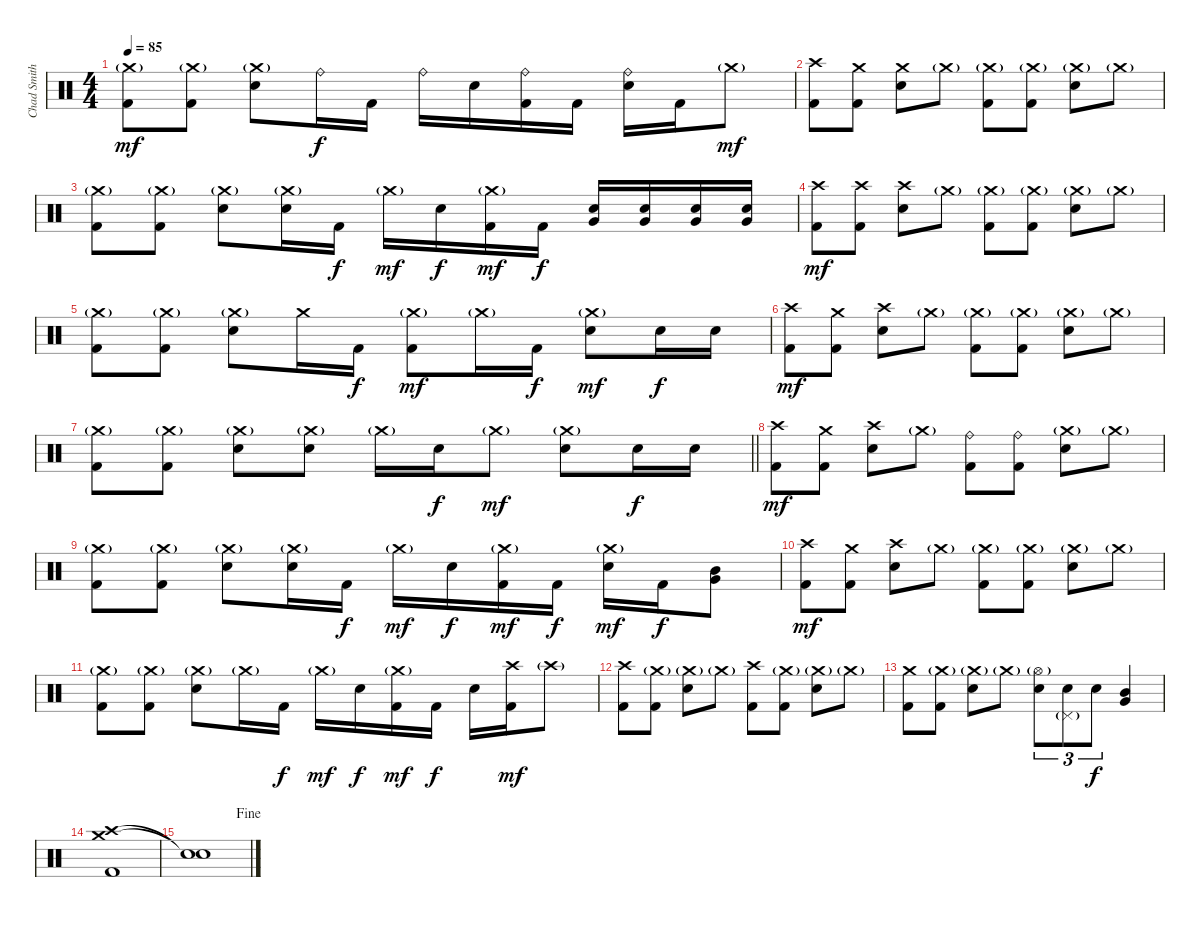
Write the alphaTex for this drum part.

\track ("Chad Smith" "Chad Smith") {instrument percussion}
\staff {score}
\articulation defaults
\ts (4 4)
\tempo 85
\clef neutral
\ks c
("Crash medium (hit)"{g} "Kick (hit) 2").8{dy mf} ("Crash medium (hit)"{g} "Kick (hit) 2").8 ("Crash medium (hit)"{g} "Electric Snare (hit)").8 "Ride (bell)".16{dy f} "Kick (hit) 2".16 "Ride (bell)".16 "Electric Snare (hit)".16 ("Ride (bell)" "Kick (hit) 2").16 "Kick (hit) 2".16 ("Ride (bell)" "Electric Snare (hit)").16 "Kick (hit) 2".16 "Crash medium (hit)"{g}.8{dy mf} |
("Crash high (hit)" "Kick (hit) 2").8 ("Crash medium (hit)" "Kick (hit) 2").8 ("Crash medium (hit)" "Electric Snare (hit)").8 "Crash medium (hit)"{g}.8 ("Crash medium (hit)"{g} "Kick (hit) 2").8 ("Crash medium (hit)"{g} "Kick (hit) 2").8 ("Crash medium (hit)"{g} "Electric Snare (hit)").8 "Crash medium (hit)"{g}.8 |
("Crash medium (hit)"{g} "Kick (hit) 2").8 ("Crash medium (hit)"{g} "Kick (hit) 2").8 ("Crash medium (hit)"{g} "Electric Snare (hit)").8 ("Crash medium (hit)"{g} "Electric Snare (hit)").16 "Kick (hit) 2".16{dy f} "Crash medium (hit)"{g}.16{dy mf} "Electric Snare (hit)".16{dy f} ("Crash medium (hit)"{g} "Kick (hit) 2").16{dy mf} "Kick (hit) 2".16{dy f} ("Electric Snare (hit)" "Very Low Tom (hit)").16 ("Electric Snare (hit)" "Very Low Tom (hit)").16 ("Electric Snare (hit)" "Very Low Tom (hit)").16 ("Electric Snare (hit)" "Very Low Tom (hit)").16 |
("Crash high (hit)" "Kick (hit) 2").8{dy mf} ("Crash high (hit)" "Kick (hit) 2").8 ("Crash high (hit)" "Electric Snare (hit)").8 "Crash medium (hit)"{g}.8 ("Crash medium (hit)"{g} "Kick (hit) 2").8 ("Crash medium (hit)"{g} "Kick (hit) 2").8 ("Crash medium (hit)"{g} "Electric Snare (hit)").8 "Crash medium (hit)"{g}.8 |
("Crash medium (hit)"{g} "Kick (hit) 2").8 ("Crash medium (hit)"{g} "Kick (hit) 2").8 ("Crash medium (hit)"{g} "Electric Snare (hit)").8 "Crash medium (hit)".16 "Kick (hit) 2".16{dy f} ("Crash medium (hit)"{g} "Kick (hit) 2").8{dy mf} "Crash medium (hit)"{g}.16 "Kick (hit) 2".16{dy f} ("Crash medium (hit)"{g} "Electric Snare (hit)").8{dy mf} "Electric Snare (hit)".16{dy f} "Electric Snare (hit)".16 |
("Crash high (hit)" "Kick (hit) 2").8{dy mf} ("Crash medium (hit)" "Kick (hit) 2").8 ("Crash high (hit)" "Electric Snare (hit)").8 "Crash medium (hit)"{g}.8 ("Crash medium (hit)"{g} "Kick (hit) 2").8 ("Crash medium (hit)"{g} "Kick (hit) 2").8 ("Crash medium (hit)"{g} "Electric Snare (hit)").8 "Crash medium (hit)"{g}.8 |
\barLineRight lightlight
("Crash medium (hit)"{g} "Kick (hit) 2").8 ("Crash medium (hit)"{g} "Kick (hit) 2").8 ("Crash medium (hit)"{g} "Electric Snare (hit)").8 ("Crash medium (hit)"{g} "Electric Snare (hit)").8 "Crash medium (hit)"{g}.16 "Electric Snare (hit)".16{dy f} "Crash medium (hit)"{g}.8{dy mf} ("Crash medium (hit)"{g} "Electric Snare (hit)").8 "Electric Snare (hit)".16{dy f} "Electric Snare (hit)".16 |
("Crash high (hit)" "Kick (hit) 2").8{dy mf} ("Crash medium (hit)" "Kick (hit) 2").8 ("Crash high (hit)" "Electric Snare (hit)").8 "Crash medium (hit)"{g}.8 ("Ride (bell)" "Kick (hit) 2").8 ("Ride (bell)" "Kick (hit) 2").8 ("Crash medium (hit)"{g} "Electric Snare (hit)").8 "Crash medium (hit)"{g}.8 |
("Crash medium (hit)"{g} "Kick (hit) 2").8 ("Crash medium (hit)"{g} "Kick (hit) 2").8 ("Crash medium (hit)"{g} "Electric Snare (hit)").8 ("Crash medium (hit)"{g} "Electric Snare (hit)").16 "Kick (hit) 2".16{dy f} "Crash medium (hit)"{g}.16{dy mf} "Electric Snare (hit)".16{dy f} ("Crash medium (hit)"{g} "Kick (hit) 2").16{dy mf} "Kick (hit) 2".16{dy f} ("Crash medium (hit)"{g} "Electric Snare (hit)").16{dy mf} "Kick (hit) 2".16{dy f} ("Mid Tom (hit)" "Very Low Tom (hit)").8 |
("Crash high (hit)" "Kick (hit) 2").8{dy mf} ("Crash medium (hit)" "Kick (hit) 2").8 ("Crash high (hit)" "Electric Snare (hit)").8 "Crash medium (hit)"{g}.8 ("Crash medium (hit)"{g} "Kick (hit) 2").8 ("Crash medium (hit)"{g} "Kick (hit) 2").8 ("Crash medium (hit)"{g} "Electric Snare (hit)").8 "Crash medium (hit)"{g}.8 |
("Crash medium (hit)"{g} "Kick (hit) 2").8 ("Crash medium (hit)"{g} "Kick (hit) 2").8 ("Crash medium (hit)"{g} "Electric Snare (hit)").8 "Crash medium (hit)"{g}.16 "Kick (hit) 2".16{dy f} "Crash medium (hit)"{g}.16{dy mf} "Electric Snare (hit)".16{dy f} ("Crash medium (hit)"{g} "Kick (hit) 2").16{dy mf} "Kick (hit) 2".16{dy f} "Electric Snare (hit)".16 ("Crash high (hit)" "Kick (hit) 2").16{dy mf} "Crash high (hit)"{g}.8 |
("Crash high (hit)" "Kick (hit) 2").8 ("Crash medium (hit)"{g} "Kick (hit) 2").8 ("Crash medium (hit)"{g} "Electric Snare (hit)").8 "Crash medium (hit)"{g}.8 ("Crash high (hit)" "Kick (hit) 2").8 ("Crash medium (hit)"{g} "Kick (hit) 2").8 ("Crash medium (hit)"{g} "Electric Snare (hit)").8 "Crash medium (hit)"{g}.8 |
("Crash medium (hit)" "Kick (hit) 2").8 ("Crash medium (hit)"{g} "Kick (hit) 2").8 ("Crash medium (hit)"{g} "Electric Snare (hit)").8 "Crash medium (hit)"{g}.8 ("Hi-Hat (open)"{g} "Electric Snare (hit)").8{tu (3 2)} ("Pedal Hi-Hat (hit)"{g} "Electric Snare (hit)").8{tu (3 2)} "Electric Snare (hit)".8{tu (3 2) dy f} ("Mid Tom (hit)" "Very Low Tom (hit)").4 |
("Crash high (hit)" "Crash medium (hit)" "Kick (hit) 2").1 |
\jump fine
("Snare (hit)"{t} "Snare (hit)"{t}).1
